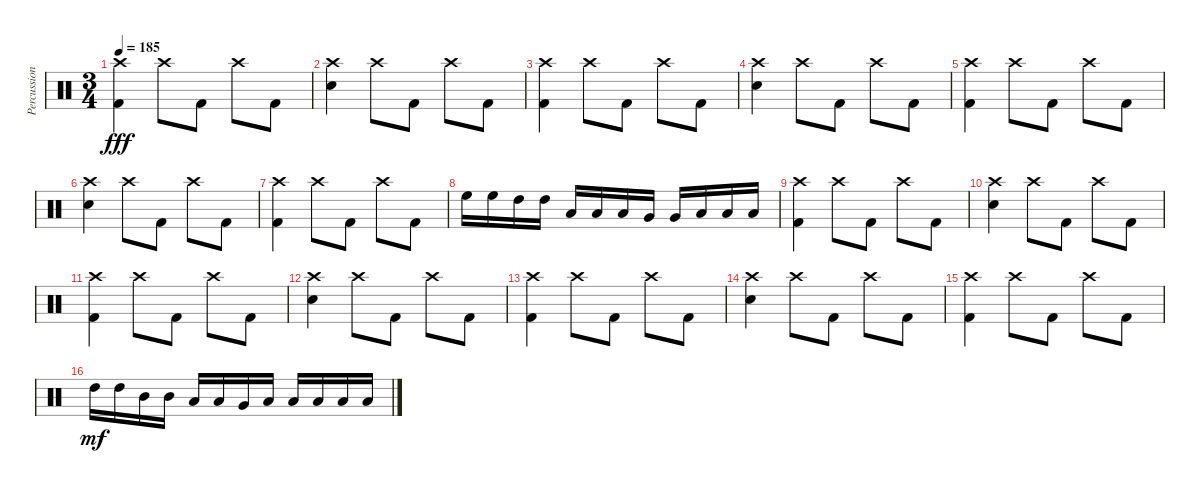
\track ("Percussion" "Percussion") {instrument percussion}
\staff {score}
\articulation defaults
\ts (3 4)
\tempo 185
\clef neutral
\ks c
("Crash high (hit)" "Kick (hit) 2").4{dy fff} "Crash high (hit)".8 "Kick (hit) 2".8 "Crash high (hit)".8 "Kick (hit) 2".8 |
("Crash high (hit)" "Electric Snare (hit)").4 "Crash high (hit)".8 "Kick (hit) 2".8 "Crash high (hit)".8 "Kick (hit) 2".8 |
("Crash high (hit)" "Kick (hit) 2").4 "Crash high (hit)".8 "Kick (hit) 2".8 "Crash high (hit)".8 "Kick (hit) 2".8 |
("Crash high (hit)" "Electric Snare (hit)").4 "Crash high (hit)".8 "Kick (hit) 2".8 "Crash high (hit)".8 "Kick (hit) 2".8 |
("Crash high (hit)" "Kick (hit) 2").4 "Crash high (hit)".8 "Kick (hit) 2".8 "Crash high (hit)".8 "Kick (hit) 2".8 |
("Crash high (hit)" "Electric Snare (hit)").4 "Crash high (hit)".8 "Kick (hit) 2".8 "Crash high (hit)".8 "Kick (hit) 2".8 |
("Crash high (hit)" "Kick (hit) 2").4 "Crash high (hit)".8 "Kick (hit) 2".8 "Crash high (hit)".8 "Kick (hit) 2".8 |
"High Floor Tom (hit)".16 "High Floor Tom (hit)".16 "High Tom (hit)".16 "High Tom (hit)".16 "Low Tom (hit)".16 "Low Tom (hit)".16 "Low Tom (hit)".16 "Very Low Tom (hit)".16 "Very Low Tom (hit)".16 "Low Floor Tom (hit)".16 "Low Floor Tom (hit)".16 "Low Floor Tom (hit)".16 |
("Crash high (hit)" "Kick (hit) 2").4 "Crash high (hit)".8 "Kick (hit) 2".8 "Crash high (hit)".8 "Kick (hit) 2".8 |
("Crash high (hit)" "Electric Snare (hit)").4 "Crash high (hit)".8 "Kick (hit) 2".8 "Crash high (hit)".8 "Kick (hit) 2".8 |
("Crash high (hit)" "Kick (hit) 2").4 "Crash high (hit)".8 "Kick (hit) 2".8 "Crash high (hit)".8 "Kick (hit) 2".8 |
("Crash high (hit)" "Electric Snare (hit)").4 "Crash high (hit)".8 "Kick (hit) 2".8 "Crash high (hit)".8 "Kick (hit) 2".8 |
("Crash high (hit)" "Kick (hit) 2").4 "Crash high (hit)".8 "Kick (hit) 2".8 "Crash high (hit)".8 "Kick (hit) 2".8 |
("Crash high (hit)" "Electric Snare (hit)").4 "Crash high (hit)".8 "Kick (hit) 2".8 "Crash high (hit)".8 "Kick (hit) 2".8 |
("Crash high (hit)" "Kick (hit) 2").4 "Crash high (hit)".8 "Kick (hit) 2".8 "Crash high (hit)".8 "Kick (hit) 2".8 |
"High Tom (hit)".16{dy mf} "High Tom (hit)".16 "Mid Tom (hit)".16 "Mid Tom (hit)".16 "Low Tom (hit)".16 "Low Tom (hit)".16 "Very Low Tom (hit)".16 "Low Floor Tom (hit)".16 "Low Floor Tom (hit)".16 "Low Floor Tom (hit)".16 "Low Floor Tom (hit)".16 "Low Floor Tom (hit)".16
